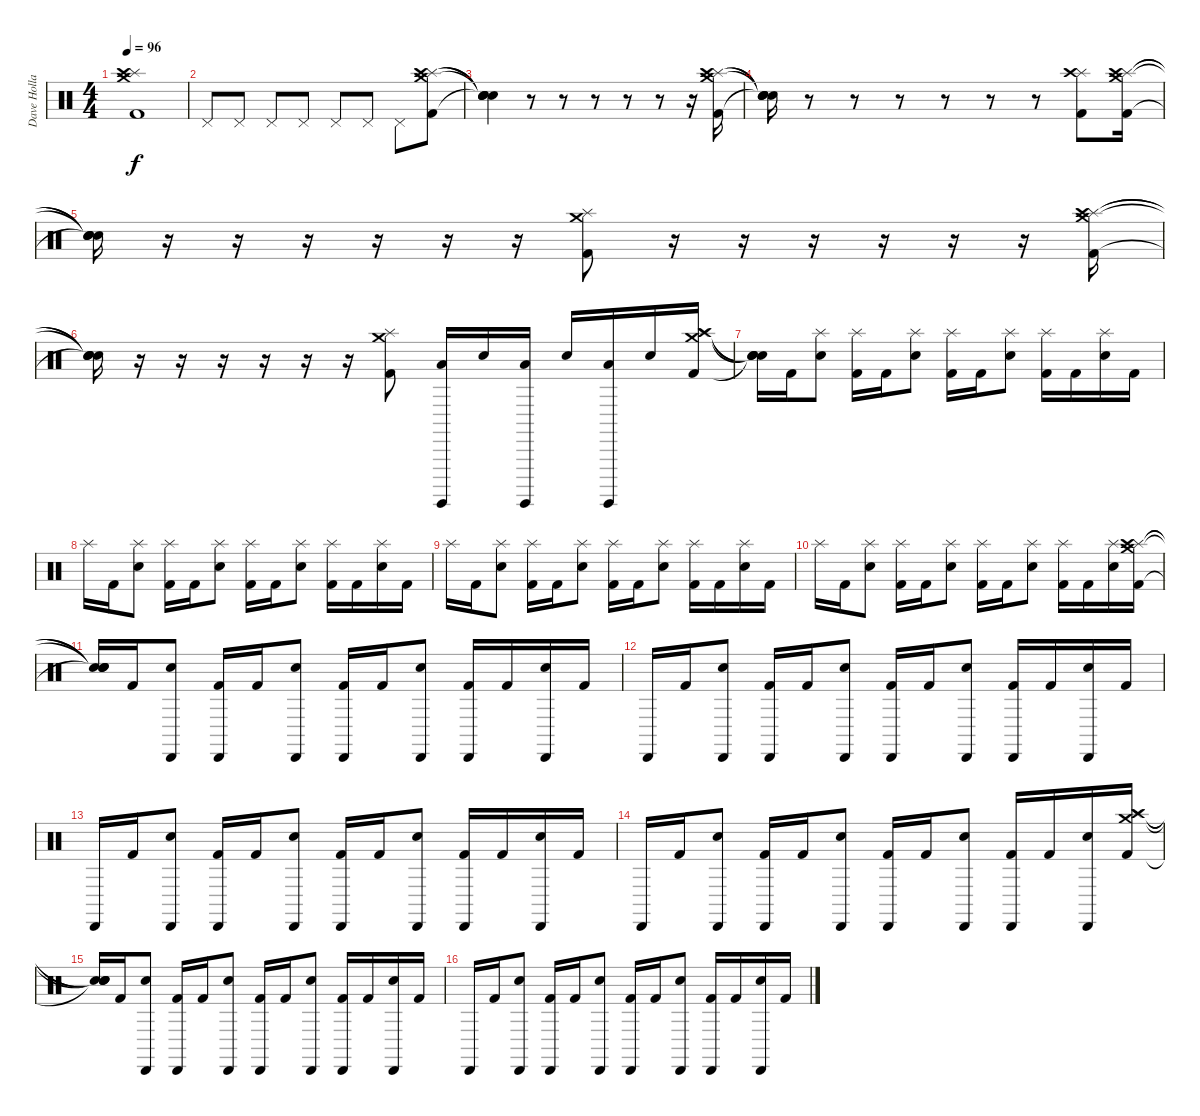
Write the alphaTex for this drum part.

\track ("Dave Holland" "Dave Holla") {instrument percussion}
\staff {score}
\articulation defaults
\ts (4 4)
\tempo 96
\clef neutral
\ks c
("Crash medium (hit)" "Splash (hit)" "Crash high (hit)" "Kick (hit) 2").1{dy f} |
"Pedal Hi-Hat (hit)".8 "Pedal Hi-Hat (hit)".8 "Pedal Hi-Hat (hit)".8 "Pedal Hi-Hat (hit)".8 "Pedal Hi-Hat (hit)".8 "Pedal Hi-Hat (hit)".8 "Pedal Hi-Hat (hit)".8 ("Crash medium (hit)" "Splash (hit)" "Crash high (hit)" "Kick (hit) 2").8 |
("Snare (hit)"{t} "Snare (hit)"{t} "Snare (hit)"{t} "Snare (hit)"{t}).4 r.8 r.8 r.8 r.8 r.8 r.16 ("Crash medium (hit)" "Splash (hit)" "Crash high (hit)" "Kick (hit) 2").16 |
("Snare (hit)"{t} "Snare (hit)"{t} "Snare (hit)"{t} "Snare (hit)"{t}).16 r.8 r.8 r.8 r.8 r.8 r.8 ("Splash (hit)" "Crash high (hit)" "Kick (hit) 2").8 ("Crash medium (hit)" "Splash (hit)" "Crash high (hit)" "Kick (hit) 2").16 |
("Snare (hit)"{t} "Snare (hit)"{t} "Snare (hit)"{t} "Snare (hit)"{t}).16 r.16 r.16 r.16 r.16 r.16 r.16 ("Crash medium (hit)" "Splash (hit)" "Kick (hit) 2").8 r.16 r.16 r.16 r.16 r.16 r.16 ("Crash medium (hit)" "Splash (hit)" "Crash high (hit)" "Kick (hit) 2").16 |
("Snare (hit)"{t} "Snare (hit)"{t} "Snare (hit)"{t} "Snare (hit)"{t}).16 r.16 r.16 r.16 r.16 r.16 r.16 ("Crash medium (hit)" "Splash (hit)" "Kick (hit) 2").8 ("Surdo (hit)" "Low Floor Tom (hit)").16 "Snare (hit) 2".16 ("Surdo (hit)" "Low Floor Tom (hit)").16 "Snare (hit) 2".16 ("Surdo (hit)" "Low Floor Tom (hit)").16 "Snare (hit) 2".16 ("Crash medium (hit)" "Splash (hit)" "Crash high (hit)" "Kick (hit) 2").16 |
("Snare (hit)"{t} "Snare (hit)"{t} "Snare (hit)"{t} "Snare (hit)"{t}).16 "Kick (hit) 2".16 ("Splash (hit)" "Snare (hit) 2").8 ("Splash (hit)" "Kick (hit) 2").16 "Kick (hit) 2".16 ("Splash (hit)" "Snare (hit) 2").8 ("Splash (hit)" "Kick (hit) 2").16 "Kick (hit) 2".16 ("Splash (hit)" "Snare (hit) 2").8 ("Splash (hit)" "Kick (hit) 2").16 "Kick (hit) 2".16 ("Splash (hit)" "Snare (hit) 2").16 "Kick (hit) 2".16 |
"Splash (hit)".16 "Kick (hit) 2".16 ("Splash (hit)" "Snare (hit) 2").8 ("Splash (hit)" "Kick (hit) 2").16 "Kick (hit) 2".16 ("Splash (hit)" "Snare (hit) 2").8 ("Splash (hit)" "Kick (hit) 2").16 "Kick (hit) 2".16 ("Splash (hit)" "Snare (hit) 2").8 ("Splash (hit)" "Kick (hit) 2").16 "Kick (hit) 2".16 ("Splash (hit)" "Snare (hit) 2").16 "Kick (hit) 2".16 |
"Splash (hit)".16 "Kick (hit) 2".16 ("Splash (hit)" "Snare (hit) 2").8 ("Splash (hit)" "Kick (hit) 2").16 "Kick (hit) 2".16 ("Splash (hit)" "Snare (hit) 2").8 ("Splash (hit)" "Kick (hit) 2").16 "Kick (hit) 2".16 ("Splash (hit)" "Snare (hit) 2").8 ("Splash (hit)" "Kick (hit) 2").16 "Kick (hit) 2".16 ("Splash (hit)" "Snare (hit) 2").16 "Kick (hit) 2".16 |
"Splash (hit)".16 "Kick (hit) 2".16 ("Splash (hit)" "Snare (hit) 2").8 ("Splash (hit)" "Kick (hit) 2").16 "Kick (hit) 2".16 ("Splash (hit)" "Snare (hit) 2").8 ("Splash (hit)" "Kick (hit) 2").16 "Kick (hit) 2".16 ("Splash (hit)" "Snare (hit) 2").8 ("Splash (hit)" "Kick (hit) 2").16 "Kick (hit) 2".16 ("Splash (hit)" "Snare (hit) 2").16 ("Crash medium (hit)" "Splash (hit)" "Crash high (hit)" "Kick (hit) 2").16 |
("Snare (hit)"{t} "Snare (hit)"{t} "Snare (hit)"{t} "Snare (hit)"{t}).16 "Kick (hit) 2".16 ("Cabasa (hit)" "Snare (hit) 2").8 ("Cabasa (hit)" "Kick (hit) 2").16 "Kick (hit) 2".16 ("Cabasa (hit)" "Snare (hit) 2").8 ("Cabasa (hit)" "Kick (hit) 2").16 "Kick (hit) 2".16 ("Cabasa (hit)" "Snare (hit) 2").8 ("Cabasa (hit)" "Kick (hit) 2").16 "Kick (hit) 2".16 ("Cabasa (hit)" "Snare (hit) 2").16 "Kick (hit) 2".16 |
"Cabasa (hit)".16 "Kick (hit) 2".16 ("Cabasa (hit)" "Snare (hit) 2").8 ("Cabasa (hit)" "Kick (hit) 2").16 "Kick (hit) 2".16 ("Cabasa (hit)" "Snare (hit) 2").8 ("Cabasa (hit)" "Kick (hit) 2").16 "Kick (hit) 2".16 ("Cabasa (hit)" "Snare (hit) 2").8 ("Cabasa (hit)" "Kick (hit) 2").16 "Kick (hit) 2".16 ("Cabasa (hit)" "Snare (hit) 2").16 "Kick (hit) 2".16 |
"Cabasa (hit)".16 "Kick (hit) 2".16 ("Cabasa (hit)" "Snare (hit) 2").8 ("Cabasa (hit)" "Kick (hit) 2").16 "Kick (hit) 2".16 ("Cabasa (hit)" "Snare (hit) 2").8 ("Cabasa (hit)" "Kick (hit) 2").16 "Kick (hit) 2".16 ("Cabasa (hit)" "Snare (hit) 2").8 ("Cabasa (hit)" "Kick (hit) 2").16 "Kick (hit) 2".16 ("Cabasa (hit)" "Snare (hit) 2").16 "Kick (hit) 2".16 |
"Cabasa (hit)".16 "Kick (hit) 2".16 ("Cabasa (hit)" "Snare (hit) 2").8 ("Cabasa (hit)" "Kick (hit) 2").16 "Kick (hit) 2".16 ("Cabasa (hit)" "Snare (hit) 2").8 ("Cabasa (hit)" "Kick (hit) 2").16 "Kick (hit) 2".16 ("Cabasa (hit)" "Snare (hit) 2").8 ("Cabasa (hit)" "Kick (hit) 2").16 "Kick (hit) 2".16 ("Cabasa (hit)" "Snare (hit) 2").16 ("Crash medium (hit)" "Splash (hit)" "Crash high (hit)" "Kick (hit) 2").16 |
("Snare (hit)"{t} "Snare (hit)"{t} "Snare (hit)"{t} "Snare (hit)"{t}).16 "Kick (hit) 2".16 ("Cabasa (hit)" "Snare (hit) 2").8 ("Cabasa (hit)" "Kick (hit) 2").16 "Kick (hit) 2".16 ("Cabasa (hit)" "Snare (hit) 2").8 ("Cabasa (hit)" "Kick (hit) 2").16 "Kick (hit) 2".16 ("Cabasa (hit)" "Snare (hit) 2").8 ("Cabasa (hit)" "Kick (hit) 2").16 "Kick (hit) 2".16 ("Cabasa (hit)" "Snare (hit) 2").16 "Kick (hit) 2".16 |
"Cabasa (hit)".16 "Kick (hit) 2".16 ("Cabasa (hit)" "Snare (hit) 2").8 ("Cabasa (hit)" "Kick (hit) 2").16 "Kick (hit) 2".16 ("Cabasa (hit)" "Snare (hit) 2").8 ("Cabasa (hit)" "Kick (hit) 2").16 "Kick (hit) 2".16 ("Cabasa (hit)" "Snare (hit) 2").8 ("Cabasa (hit)" "Kick (hit) 2").16 "Kick (hit) 2".16 ("Cabasa (hit)" "Snare (hit) 2").16 "Kick (hit) 2".16
